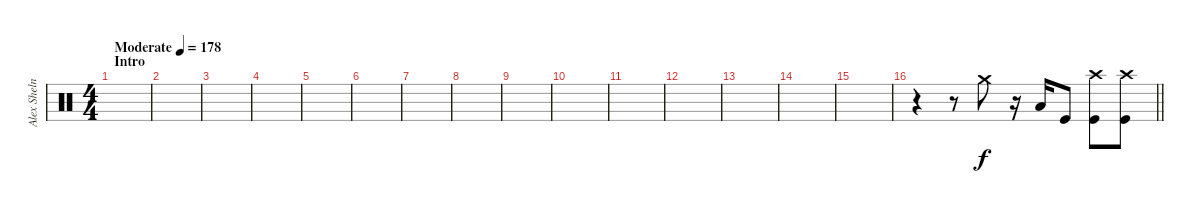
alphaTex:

\track ("Alex Shelnut" "Alex Sheln") {instrument percussion}
\staff {score}
\articulation defaults
\ts (4 4)
\section ("" "Intro")
\tempo (178 "Moderate")
\clef neutral
\ks c
|
|
|
|
|
|
|
|
|
|
|
|
|
|
|
\barLineRight lightlight
r.4 r.8 "Crash medium (hit)".8 r.16 "Low Floor Tom (hit)".16 "Kick (hit)".8 ("Crash high (hit)" "Kick (hit)").8 ("Crash high (hit)" "Kick (hit)").8
